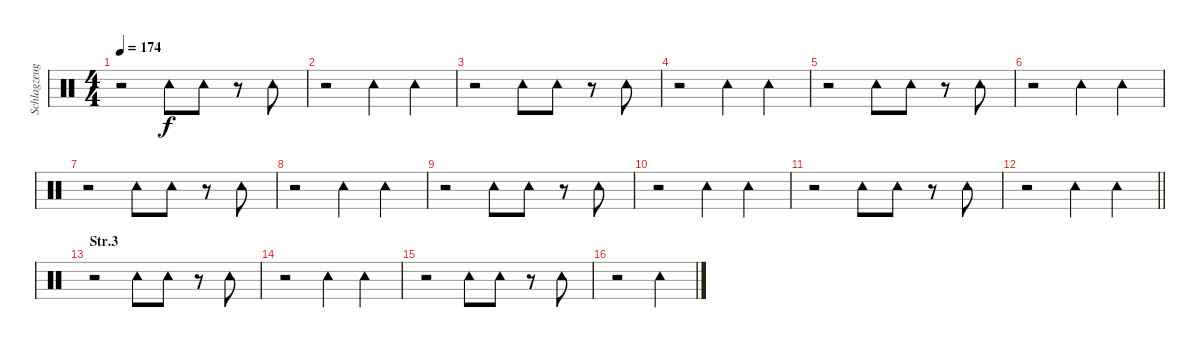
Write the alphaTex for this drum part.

\track ("Schlagzeug" "Schlagzeug") {instrument percussion}
\staff {score}
\articulation defaults
\ts (4 4)
\tempo 174
\clef neutral
\ks c
r.2{dy f} "Tambourine (hit)".8 "Tambourine (hit)".8 r.8 "Tambourine (hit)".8 |
r.2 "Tambourine (hit)".4 "Tambourine (hit)".4 |
r.2 "Tambourine (hit)".8 "Tambourine (hit)".8 r.8 "Tambourine (hit)".8 |
r.2 "Tambourine (hit)".4 "Tambourine (hit)".4 |
r.2 "Tambourine (hit)".8 "Tambourine (hit)".8 r.8 "Tambourine (hit)".8 |
r.2 "Tambourine (hit)".4 "Tambourine (hit)".4 |
r.2 "Tambourine (hit)".8 "Tambourine (hit)".8 r.8 "Tambourine (hit)".8 |
r.2 "Tambourine (hit)".4 "Tambourine (hit)".4 |
r.2 "Tambourine (hit)".8 "Tambourine (hit)".8 r.8 "Tambourine (hit)".8 |
r.2 "Tambourine (hit)".4 "Tambourine (hit)".4 |
r.2 "Tambourine (hit)".8 "Tambourine (hit)".8 r.8 "Tambourine (hit)".8 |
\barLineRight lightlight
r.2 "Tambourine (hit)".4 "Tambourine (hit)".4 |
\section ("" "Str.3")
r.2 "Tambourine (hit)".8 "Tambourine (hit)".8 r.8 "Tambourine (hit)".8 |
r.2 "Tambourine (hit)".4 "Tambourine (hit)".4 |
r.2 "Tambourine (hit)".8 "Tambourine (hit)".8 r.8 "Tambourine (hit)".8 |
r.2 "Tambourine (hit)".4
